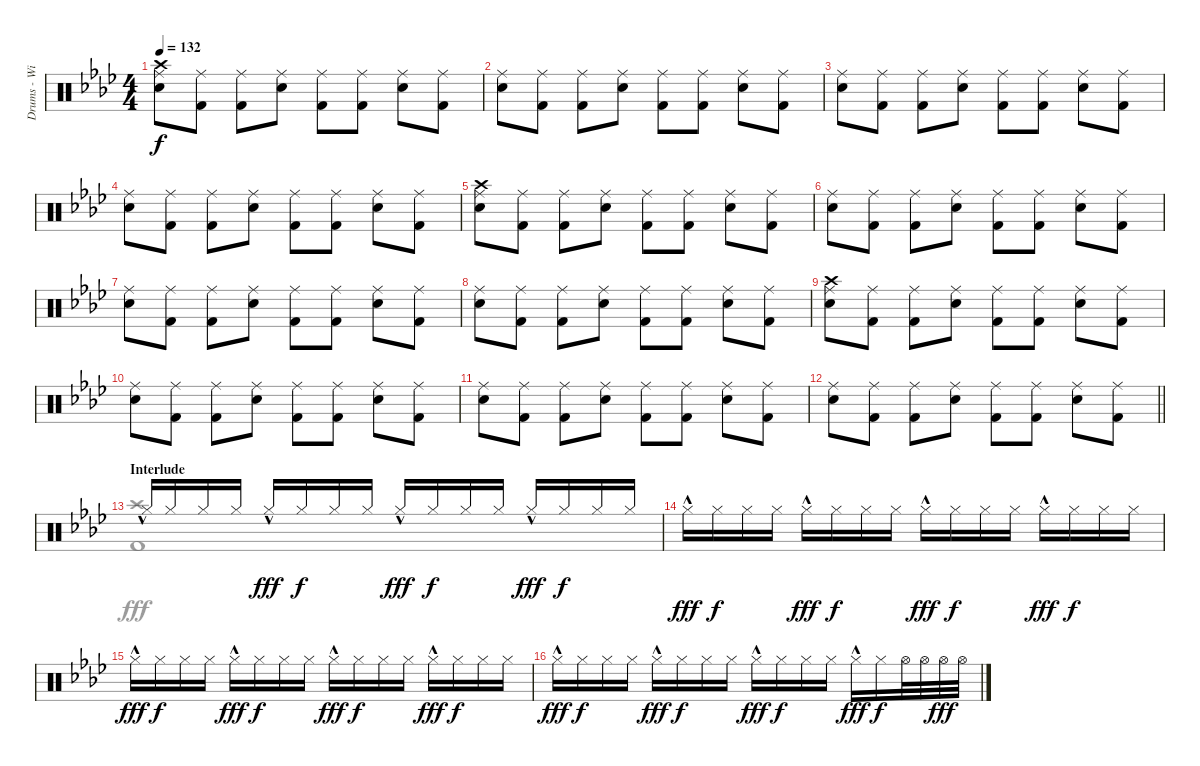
\track ("Drums - Will" "Drums - Wi") {instrument percussion}
\staff {score}
\articulation defaults
\voice
\ts (4 4)
\tempo 132
\clef neutral
\ks ab
("Crash high (hit)" "Ride (middle)" "Electric Snare (hit)").8{dy f} ("Ride (middle)" "Kick (hit) 2").8 ("Ride (middle)" "Kick (hit) 2").8 ("Ride (middle)" "Electric Snare (hit)").8 ("Ride (middle)" "Kick (hit) 2").8 ("Ride (middle)" "Kick (hit) 2").8 ("Ride (middle)" "Electric Snare (hit)").8 ("Ride (middle)" "Kick (hit) 2").8 |
("Ride (middle)" "Electric Snare (hit)").8 ("Ride (middle)" "Kick (hit) 2").8 ("Ride (middle)" "Kick (hit) 2").8 ("Ride (middle)" "Electric Snare (hit)").8 ("Ride (middle)" "Kick (hit) 2").8 ("Ride (middle)" "Kick (hit) 2").8 ("Ride (middle)" "Electric Snare (hit)").8 ("Ride (middle)" "Kick (hit) 2").8 |
("Ride (middle)" "Electric Snare (hit)").8 ("Ride (middle)" "Kick (hit) 2").8 ("Ride (middle)" "Kick (hit) 2").8 ("Ride (middle)" "Electric Snare (hit)").8 ("Ride (middle)" "Kick (hit) 2").8 ("Ride (middle)" "Kick (hit) 2").8 ("Ride (middle)" "Electric Snare (hit)").8 ("Ride (middle)" "Kick (hit) 2").8 |
("Ride (middle)" "Electric Snare (hit)").8 ("Ride (middle)" "Kick (hit) 2").8 ("Ride (middle)" "Kick (hit) 2").8 ("Ride (middle)" "Electric Snare (hit)").8 ("Ride (middle)" "Kick (hit) 2").8 ("Ride (middle)" "Kick (hit) 2").8 ("Ride (middle)" "Electric Snare (hit)").8 ("Ride (middle)" "Kick (hit) 2").8 |
("Crash high (hit)" "Ride (middle)" "Electric Snare (hit)").8 ("Ride (middle)" "Kick (hit) 2").8 ("Ride (middle)" "Kick (hit) 2").8 ("Ride (middle)" "Electric Snare (hit)").8 ("Ride (middle)" "Kick (hit) 2").8 ("Ride (middle)" "Kick (hit) 2").8 ("Ride (middle)" "Electric Snare (hit)").8 ("Ride (middle)" "Kick (hit) 2").8 |
("Ride (middle)" "Electric Snare (hit)").8 ("Ride (middle)" "Kick (hit) 2").8 ("Ride (middle)" "Kick (hit) 2").8 ("Ride (middle)" "Electric Snare (hit)").8 ("Ride (middle)" "Kick (hit) 2").8 ("Ride (middle)" "Kick (hit) 2").8 ("Ride (middle)" "Electric Snare (hit)").8 ("Ride (middle)" "Kick (hit) 2").8 |
("Ride (middle)" "Electric Snare (hit)").8 ("Ride (middle)" "Kick (hit) 2").8 ("Ride (middle)" "Kick (hit) 2").8 ("Ride (middle)" "Electric Snare (hit)").8 ("Ride (middle)" "Kick (hit) 2").8 ("Ride (middle)" "Kick (hit) 2").8 ("Ride (middle)" "Electric Snare (hit)").8 ("Ride (middle)" "Kick (hit) 2").8 |
("Ride (middle)" "Electric Snare (hit)").8 ("Ride (middle)" "Kick (hit) 2").8 ("Ride (middle)" "Kick (hit) 2").8 ("Ride (middle)" "Electric Snare (hit)").8 ("Ride (middle)" "Kick (hit) 2").8 ("Ride (middle)" "Kick (hit) 2").8 ("Ride (middle)" "Electric Snare (hit)").8 ("Ride (middle)" "Kick (hit) 2").8 |
("Crash high (hit)" "Ride (middle)" "Electric Snare (hit)").8 ("Ride (middle)" "Kick (hit) 2").8 ("Ride (middle)" "Kick (hit) 2").8 ("Ride (middle)" "Electric Snare (hit)").8 ("Ride (middle)" "Kick (hit) 2").8 ("Ride (middle)" "Kick (hit) 2").8 ("Ride (middle)" "Electric Snare (hit)").8 ("Ride (middle)" "Kick (hit) 2").8 |
("Ride (middle)" "Electric Snare (hit)").8 ("Ride (middle)" "Kick (hit) 2").8 ("Ride (middle)" "Kick (hit) 2").8 ("Ride (middle)" "Electric Snare (hit)").8 ("Ride (middle)" "Kick (hit) 2").8 ("Ride (middle)" "Kick (hit) 2").8 ("Ride (middle)" "Electric Snare (hit)").8 ("Ride (middle)" "Kick (hit) 2").8 |
("Ride (middle)" "Electric Snare (hit)").8 ("Ride (middle)" "Kick (hit) 2").8 ("Ride (middle)" "Kick (hit) 2").8 ("Ride (middle)" "Electric Snare (hit)").8 ("Ride (middle)" "Kick (hit) 2").8 ("Ride (middle)" "Kick (hit) 2").8 ("Ride (middle)" "Electric Snare (hit)").8 ("Ride (middle)" "Kick (hit) 2").8 |
\barLineRight lightlight
("Ride (middle)" "Electric Snare (hit)").8 ("Ride (middle)" "Kick (hit) 2").8 ("Ride (middle)" "Kick (hit) 2").8 ("Ride (middle)" "Electric Snare (hit)").8 ("Ride (middle)" "Kick (hit) 2").8 ("Ride (middle)" "Kick (hit) 2").8 ("Ride (middle)" "Electric Snare (hit)").8 ("Ride (middle)" "Kick (hit) 2").8 |
\section ("" "Interlude")
"Hi-Hat (closed)"{hac}.16 "Hi-Hat (closed)".16 "Hi-Hat (closed)".16 "Hi-Hat (closed)".16 "Hi-Hat (closed)"{hac}.16{dy fff} "Hi-Hat (closed)".16{dy f} "Hi-Hat (closed)".16 "Hi-Hat (closed)".16 "Hi-Hat (closed)"{hac}.16{dy fff} "Hi-Hat (closed)".16{dy f} "Hi-Hat (closed)".16 "Hi-Hat (closed)".16 "Hi-Hat (closed)"{hac}.16{dy fff} "Hi-Hat (closed)".16{dy f} "Hi-Hat (closed)".16 "Hi-Hat (closed)".16 |
"Hi-Hat (closed)"{hac}.16{dy fff} "Hi-Hat (closed)".16{dy f} "Hi-Hat (closed)".16 "Hi-Hat (closed)".16 "Hi-Hat (closed)"{hac}.16{dy fff} "Hi-Hat (closed)".16{dy f} "Hi-Hat (closed)".16 "Hi-Hat (closed)".16 "Hi-Hat (closed)"{hac}.16{dy fff} "Hi-Hat (closed)".16{dy f} "Hi-Hat (closed)".16 "Hi-Hat (closed)".16 "Hi-Hat (closed)"{hac}.16{dy fff} "Hi-Hat (closed)".16{dy f} "Hi-Hat (closed)".16 "Hi-Hat (closed)".16 |
"Hi-Hat (closed)"{hac}.16{dy fff} "Hi-Hat (closed)".16{dy f} "Hi-Hat (closed)".16 "Hi-Hat (closed)".16 "Hi-Hat (closed)"{hac}.16{dy fff} "Hi-Hat (closed)".16{dy f} "Hi-Hat (closed)".16 "Hi-Hat (closed)".16 "Hi-Hat (closed)"{hac}.16{dy fff} "Hi-Hat (closed)".16{dy f} "Hi-Hat (closed)".16 "Hi-Hat (closed)".16 "Hi-Hat (closed)"{hac}.16{dy fff} "Hi-Hat (closed)".16{dy f} "Hi-Hat (closed)".16 "Hi-Hat (closed)".16 |
"Hi-Hat (closed)"{hac}.16{dy fff} "Hi-Hat (closed)".16{dy f} "Hi-Hat (closed)".16 "Hi-Hat (closed)".16 "Hi-Hat (closed)"{hac}.16{dy fff} "Hi-Hat (closed)".16{dy f} "Hi-Hat (closed)".16 "Hi-Hat (closed)".16 "Hi-Hat (closed)"{hac}.16{dy fff} "Hi-Hat (closed)".16{dy f} "Hi-Hat (closed)".16 "Hi-Hat (closed)".16 "Hi-Hat (closed)"{hac}.16{dy fff} "Hi-Hat (closed)".16{dy f} "Hi-Hat (open)".32 "Hi-Hat (open)".32 "Hi-Hat (open)".32{dy fff} "Hi-Hat (open)".32
\voice
\clef neutral
\ottava regular
\simile none
\ks ab
|
|
|
|
|
|
|
|
|
|
|
\barLineRight lightlight
|
("Kick (hit) 2" "Crash high (hit)").1 |
|
|
